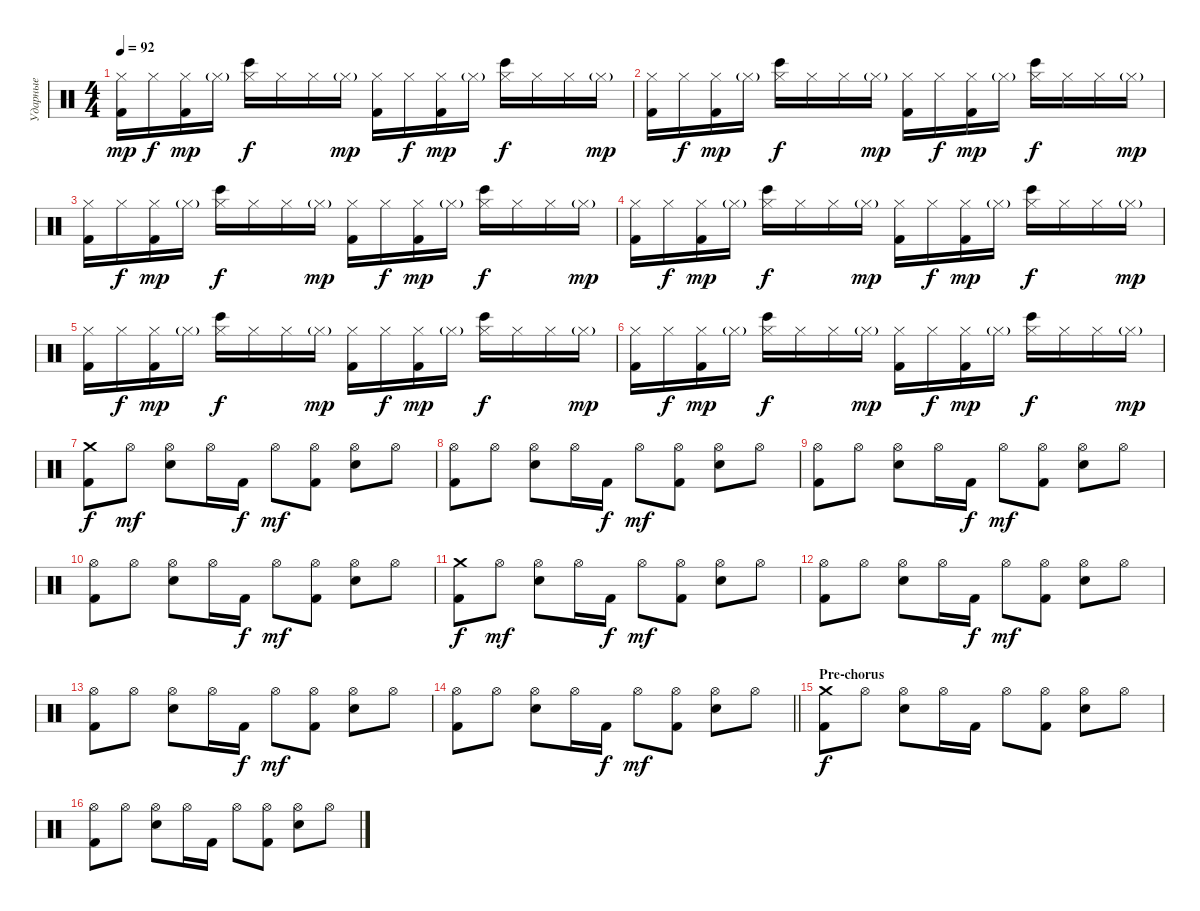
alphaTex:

\track ("Ударные" "Ударные") {instrument percussion}
\staff {score}
\articulation defaults
\ts (4 4)
\tempo 92
\clef neutral
\ks c
("Hi-Hat (closed)" "Kick (hit) 2").16{dy mp} "Hi-Hat (closed)".16{dy f} ("Hi-Hat (closed)" "Kick (hit) 2").16{dy mp} "Hi-Hat (closed)"{g}.16 ("Hi-Hat (closed)" "Bongo High (hit)").16{dy f} "Hi-Hat (closed)".16 "Hi-Hat (closed)".16 "Hi-Hat (closed)"{g}.16{dy mp} ("Hi-Hat (closed)" "Kick (hit) 2").16 "Hi-Hat (closed)".16{dy f} ("Hi-Hat (closed)" "Kick (hit) 2").16{dy mp} "Hi-Hat (closed)"{g}.16 ("Hi-Hat (closed)" "Bongo High (hit)").16{dy f} "Hi-Hat (closed)".16 "Hi-Hat (closed)".16 "Hi-Hat (closed)"{g}.16{dy mp} |
("Hi-Hat (closed)" "Kick (hit) 2").16 "Hi-Hat (closed)".16{dy f} ("Hi-Hat (closed)" "Kick (hit) 2").16{dy mp} "Hi-Hat (closed)"{g}.16 ("Hi-Hat (closed)" "Bongo High (hit)").16{dy f} "Hi-Hat (closed)".16 "Hi-Hat (closed)".16 "Hi-Hat (closed)"{g}.16{dy mp} ("Hi-Hat (closed)" "Kick (hit) 2").16 "Hi-Hat (closed)".16{dy f} ("Hi-Hat (closed)" "Kick (hit) 2").16{dy mp} "Hi-Hat (closed)"{g}.16 ("Hi-Hat (closed)" "Bongo High (hit)").16{dy f} "Hi-Hat (closed)".16 "Hi-Hat (closed)".16 "Hi-Hat (closed)"{g}.16{dy mp} |
("Hi-Hat (closed)" "Kick (hit) 2").16 "Hi-Hat (closed)".16{dy f} ("Hi-Hat (closed)" "Kick (hit) 2").16{dy mp} "Hi-Hat (closed)"{g}.16 ("Hi-Hat (closed)" "Bongo High (hit)").16{dy f} "Hi-Hat (closed)".16 "Hi-Hat (closed)".16 "Hi-Hat (closed)"{g}.16{dy mp} ("Hi-Hat (closed)" "Kick (hit) 2").16 "Hi-Hat (closed)".16{dy f} ("Hi-Hat (closed)" "Kick (hit) 2").16{dy mp} "Hi-Hat (closed)"{g}.16 ("Hi-Hat (closed)" "Bongo High (hit)").16{dy f} "Hi-Hat (closed)".16 "Hi-Hat (closed)".16 "Hi-Hat (closed)"{g}.16{dy mp} |
("Hi-Hat (closed)" "Kick (hit) 2").16 "Hi-Hat (closed)".16{dy f} ("Hi-Hat (closed)" "Kick (hit) 2").16{dy mp} "Hi-Hat (closed)"{g}.16 ("Hi-Hat (closed)" "Bongo High (hit)").16{dy f} "Hi-Hat (closed)".16 "Hi-Hat (closed)".16 "Hi-Hat (closed)"{g}.16{dy mp} ("Hi-Hat (closed)" "Kick (hit) 2").16 "Hi-Hat (closed)".16{dy f} ("Hi-Hat (closed)" "Kick (hit) 2").16{dy mp} "Hi-Hat (closed)"{g}.16 ("Hi-Hat (closed)" "Bongo High (hit)").16{dy f} "Hi-Hat (closed)".16 "Hi-Hat (closed)".16 "Hi-Hat (closed)"{g}.16{dy mp} |
("Hi-Hat (closed)" "Kick (hit) 2").16 "Hi-Hat (closed)".16{dy f} ("Hi-Hat (closed)" "Kick (hit) 2").16{dy mp} "Hi-Hat (closed)"{g}.16 ("Hi-Hat (closed)" "Bongo High (hit)").16{dy f} "Hi-Hat (closed)".16 "Hi-Hat (closed)".16 "Hi-Hat (closed)"{g}.16{dy mp} ("Hi-Hat (closed)" "Kick (hit) 2").16 "Hi-Hat (closed)".16{dy f} ("Hi-Hat (closed)" "Kick (hit) 2").16{dy mp} "Hi-Hat (closed)"{g}.16 ("Hi-Hat (closed)" "Bongo High (hit)").16{dy f} "Hi-Hat (closed)".16 "Hi-Hat (closed)".16 "Hi-Hat (closed)"{g}.16{dy mp} |
("Hi-Hat (closed)" "Kick (hit) 2").16 "Hi-Hat (closed)".16{dy f} ("Hi-Hat (closed)" "Kick (hit) 2").16{dy mp} "Hi-Hat (closed)"{g}.16 ("Hi-Hat (closed)" "Bongo High (hit)").16{dy f} "Hi-Hat (closed)".16 "Hi-Hat (closed)".16 "Hi-Hat (closed)"{g}.16{dy mp} ("Hi-Hat (closed)" "Kick (hit) 2").16 "Hi-Hat (closed)".16{dy f} ("Hi-Hat (closed)" "Kick (hit) 2").16{dy mp} "Hi-Hat (closed)"{g}.16 ("Hi-Hat (closed)" "Bongo High (hit)").16{dy f} "Hi-Hat (closed)".16 "Hi-Hat (closed)".16 "Hi-Hat (closed)"{g}.16{dy mp} |
("Crash medium (hit)" "Kick (hit) 2").8{dy f} "Hi-Hat (open)".8{dy mf} ("Hi-Hat (open)" "Electric Snare (hit)").8 "Hi-Hat (open)".16 "Kick (hit) 2".16{dy f} "Hi-Hat (open)".8{dy mf} ("Hi-Hat (open)" "Kick (hit) 2").8 ("Hi-Hat (open)" "Electric Snare (hit)").8 "Hi-Hat (open)".8 |
("Hi-Hat (open)" "Kick (hit) 2").8 "Hi-Hat (open)".8 ("Hi-Hat (open)" "Electric Snare (hit)").8 "Hi-Hat (open)".16 "Kick (hit) 2".16{dy f} "Hi-Hat (open)".8{dy mf} ("Hi-Hat (open)" "Kick (hit) 2").8 ("Hi-Hat (open)" "Electric Snare (hit)").8 "Hi-Hat (open)".8 |
("Hi-Hat (open)" "Kick (hit) 2").8 "Hi-Hat (open)".8 ("Hi-Hat (open)" "Electric Snare (hit)").8 "Hi-Hat (open)".16 "Kick (hit) 2".16{dy f} "Hi-Hat (open)".8{dy mf} ("Hi-Hat (open)" "Kick (hit) 2").8 ("Hi-Hat (open)" "Electric Snare (hit)").8 "Hi-Hat (open)".8 |
("Hi-Hat (open)" "Kick (hit) 2").8 "Hi-Hat (open)".8 ("Hi-Hat (open)" "Electric Snare (hit)").8 "Hi-Hat (open)".16 "Kick (hit) 2".16{dy f} "Hi-Hat (open)".8{dy mf} ("Hi-Hat (open)" "Kick (hit) 2").8 ("Hi-Hat (open)" "Electric Snare (hit)").8 "Hi-Hat (open)".8 |
("Crash medium (hit)" "Kick (hit) 2").8{dy f} "Hi-Hat (open)".8{dy mf} ("Hi-Hat (open)" "Electric Snare (hit)").8 "Hi-Hat (open)".16 "Kick (hit) 2".16{dy f} "Hi-Hat (open)".8{dy mf} ("Hi-Hat (open)" "Kick (hit) 2").8 ("Hi-Hat (open)" "Electric Snare (hit)").8 "Hi-Hat (open)".8 |
("Hi-Hat (open)" "Kick (hit) 2").8 "Hi-Hat (open)".8 ("Hi-Hat (open)" "Electric Snare (hit)").8 "Hi-Hat (open)".16 "Kick (hit) 2".16{dy f} "Hi-Hat (open)".8{dy mf} ("Hi-Hat (open)" "Kick (hit) 2").8 ("Hi-Hat (open)" "Electric Snare (hit)").8 "Hi-Hat (open)".8 |
("Hi-Hat (open)" "Kick (hit) 2").8 "Hi-Hat (open)".8 ("Hi-Hat (open)" "Electric Snare (hit)").8 "Hi-Hat (open)".16 "Kick (hit) 2".16{dy f} "Hi-Hat (open)".8{dy mf} ("Hi-Hat (open)" "Kick (hit) 2").8 ("Hi-Hat (open)" "Electric Snare (hit)").8 "Hi-Hat (open)".8 |
\barLineRight lightlight
("Hi-Hat (open)" "Kick (hit) 2").8 "Hi-Hat (open)".8 ("Hi-Hat (open)" "Electric Snare (hit)").8 "Hi-Hat (open)".16 "Kick (hit) 2".16{dy f} "Hi-Hat (open)".8{dy mf} ("Hi-Hat (open)" "Kick (hit) 2").8 ("Hi-Hat (open)" "Electric Snare (hit)").8 "Hi-Hat (open)".8 |
\section ("" "Pre-chorus")
("Crash medium (hit)" "Kick (hit) 2").8{dy f} "Hi-Hat (open)".8 ("Hi-Hat (open)" "Electric Snare (hit)").8 "Hi-Hat (open)".16 "Kick (hit) 2".16 "Hi-Hat (open)".8 ("Hi-Hat (open)" "Kick (hit) 2").8 ("Hi-Hat (open)" "Electric Snare (hit)").8 "Hi-Hat (open)".8 |
("Hi-Hat (open)" "Kick (hit) 2").8 "Hi-Hat (open)".8 ("Hi-Hat (open)" "Electric Snare (hit)").8 "Hi-Hat (open)".16 "Kick (hit) 2".16 "Hi-Hat (open)".8 ("Hi-Hat (open)" "Kick (hit) 2").8 ("Hi-Hat (open)" "Electric Snare (hit)").8 "Hi-Hat (open)".8
